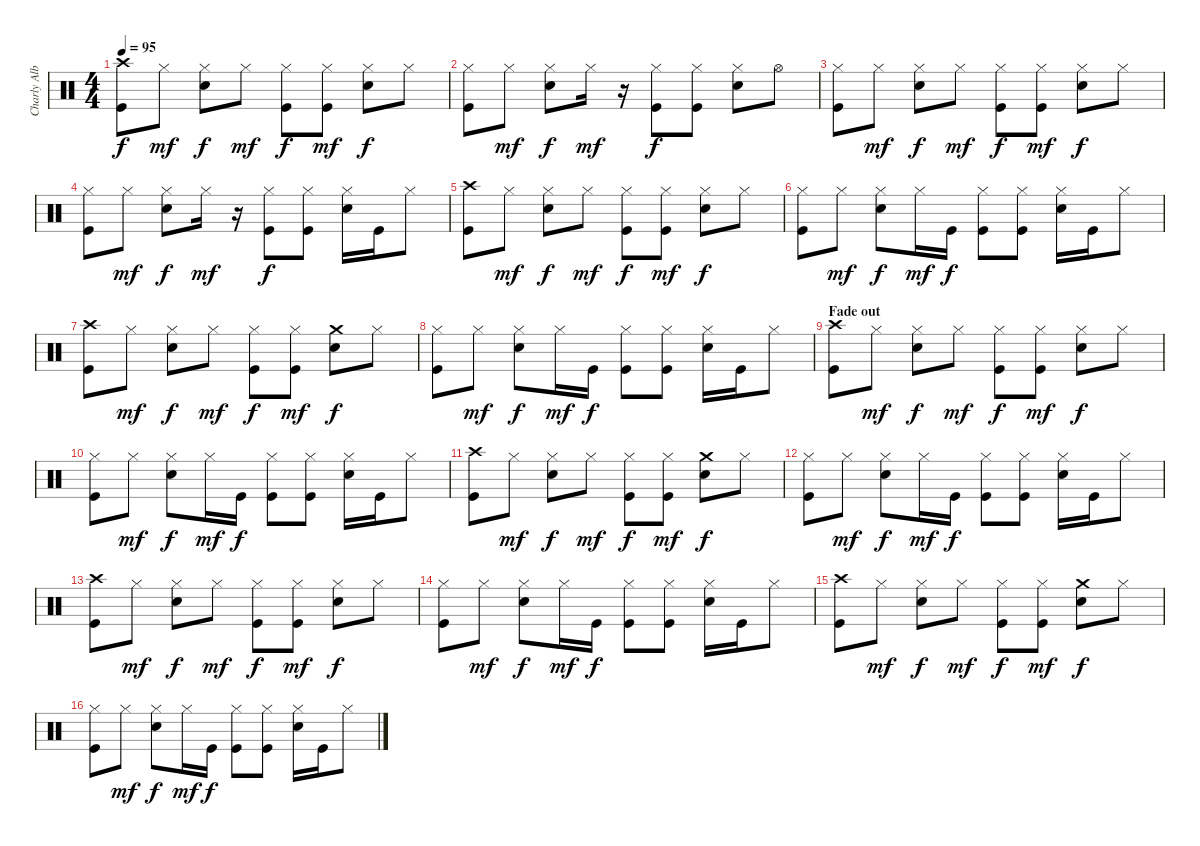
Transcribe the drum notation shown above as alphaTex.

\track ("Charly Alberti BATERIA" "Charly Alb") {instrument percussion}
\staff {score}
\articulation defaults
\ts (4 4)
\tempo 95
\clef neutral
\ks c
("Kick (hit)" "Crash high (hit)").8{dy f} "Hi-Hat (closed)".8{dy mf} ("Electric Snare (hit)" "Hi-Hat (closed)").8{dy f} "Hi-Hat (closed)".8{dy mf} ("Kick (hit)" "Hi-Hat (closed)").8{dy f} ("Kick (hit)" "Hi-Hat (closed)").8{dy mf} ("Electric Snare (hit)" "Hi-Hat (closed)").8{dy f} "Hi-Hat (closed)".8 |
("Kick (hit)" "Hi-Hat (closed)").8 "Hi-Hat (closed)".8{dy mf} ("Electric Snare (hit)" "Hi-Hat (closed)").8{dy f} "Hi-Hat (closed)".16{dy mf} r.16 ("Kick (hit)" "Hi-Hat (closed)").8{dy f} ("Kick (hit)" "Hi-Hat (closed)").8 ("Electric Snare (hit)" "Hi-Hat (closed)").8 "Hi-Hat (open)".8 |
("Kick (hit)" "Hi-Hat (closed)").8 "Hi-Hat (closed)".8{dy mf} ("Electric Snare (hit)" "Hi-Hat (closed)").8{dy f} "Hi-Hat (closed)".8{dy mf} ("Kick (hit)" "Hi-Hat (closed)").8{dy f} ("Kick (hit)" "Hi-Hat (closed)").8{dy mf} ("Electric Snare (hit)" "Hi-Hat (closed)").8{dy f} "Hi-Hat (closed)".8 |
("Kick (hit)" "Hi-Hat (closed)").8 "Hi-Hat (closed)".8{dy mf} ("Electric Snare (hit)" "Hi-Hat (closed)").8{dy f} "Hi-Hat (closed)".16{dy mf} r.16 ("Kick (hit)" "Hi-Hat (closed)").8{dy f} ("Kick (hit)" "Hi-Hat (closed)").8 ("Electric Snare (hit)" "Hi-Hat (closed)").16 "Kick (hit)".16 "Hi-Hat (closed)".8 |
("Kick (hit)" "Crash high (hit)").8 "Hi-Hat (closed)".8{dy mf} ("Electric Snare (hit)" "Hi-Hat (closed)").8{dy f} "Hi-Hat (closed)".8{dy mf} ("Kick (hit)" "Hi-Hat (closed)").8{dy f} ("Kick (hit)" "Hi-Hat (closed)").8{dy mf} ("Electric Snare (hit)" "Hi-Hat (closed)").8{dy f} "Hi-Hat (closed)".8 |
("Kick (hit)" "Hi-Hat (closed)").8 "Hi-Hat (closed)".8{dy mf} ("Electric Snare (hit)" "Hi-Hat (closed)").8{dy f} "Hi-Hat (closed)".16{dy mf} "Kick (hit)".16{dy f} ("Kick (hit)" "Hi-Hat (closed)").8 ("Kick (hit)" "Hi-Hat (closed)").8 ("Electric Snare (hit)" "Hi-Hat (closed)").16 "Kick (hit)".16 "Hi-Hat (closed)".8 |
("Kick (hit)" "Crash high (hit)").8 "Hi-Hat (closed)".8{dy mf} ("Electric Snare (hit)" "Hi-Hat (closed)").8{dy f} "Hi-Hat (closed)".8{dy mf} ("Kick (hit)" "Hi-Hat (closed)").8{dy f} ("Kick (hit)" "Hi-Hat (closed)").8{dy mf} ("Electric Snare (hit)" "Crash medium (hit)").8{dy f} "Hi-Hat (closed)".8 |
("Kick (hit)" "Hi-Hat (closed)").8 "Hi-Hat (closed)".8{dy mf} ("Electric Snare (hit)" "Hi-Hat (closed)").8{dy f} "Hi-Hat (closed)".16{dy mf} "Kick (hit)".16{dy f} ("Kick (hit)" "Hi-Hat (closed)").8 ("Kick (hit)" "Hi-Hat (closed)").8 ("Electric Snare (hit)" "Hi-Hat (closed)").16 "Kick (hit)".16 "Hi-Hat (closed)".8 |
\section ("" "Fade out")
("Kick (hit)" "Crash high (hit)").8 "Hi-Hat (closed)".8{dy mf} ("Electric Snare (hit)" "Hi-Hat (closed)").8{dy f} "Hi-Hat (closed)".8{dy mf} ("Kick (hit)" "Hi-Hat (closed)").8{dy f} ("Kick (hit)" "Hi-Hat (closed)").8{dy mf} ("Electric Snare (hit)" "Hi-Hat (closed)").8{dy f} "Hi-Hat (closed)".8 |
("Kick (hit)" "Hi-Hat (closed)").8 "Hi-Hat (closed)".8{dy mf} ("Electric Snare (hit)" "Hi-Hat (closed)").8{dy f} "Hi-Hat (closed)".16{dy mf} "Kick (hit)".16{dy f} ("Kick (hit)" "Hi-Hat (closed)").8 ("Kick (hit)" "Hi-Hat (closed)").8 ("Electric Snare (hit)" "Hi-Hat (closed)").16 "Kick (hit)".16 "Hi-Hat (closed)".8 |
("Kick (hit)" "Crash high (hit)").8{volume 8} "Hi-Hat (closed)".8{dy mf} ("Electric Snare (hit)" "Hi-Hat (closed)").8{dy f} "Hi-Hat (closed)".8{dy mf} ("Kick (hit)" "Hi-Hat (closed)").8{dy f} ("Kick (hit)" "Hi-Hat (closed)").8{dy mf} ("Electric Snare (hit)" "Crash medium (hit)").8{dy f} "Hi-Hat (closed)".8 |
("Kick (hit)" "Hi-Hat (closed)").8 "Hi-Hat (closed)".8{dy mf} ("Electric Snare (hit)" "Hi-Hat (closed)").8{dy f} "Hi-Hat (closed)".16{dy mf} "Kick (hit)".16{dy f} ("Kick (hit)" "Hi-Hat (closed)").8 ("Kick (hit)" "Hi-Hat (closed)").8 ("Electric Snare (hit)" "Hi-Hat (closed)").16 "Kick (hit)".16 "Hi-Hat (closed)".8 |
("Kick (hit)" "Crash high (hit)").8{volume 4} "Hi-Hat (closed)".8{dy mf} ("Electric Snare (hit)" "Hi-Hat (closed)").8{dy f} "Hi-Hat (closed)".8{dy mf} ("Kick (hit)" "Hi-Hat (closed)").8{dy f} ("Kick (hit)" "Hi-Hat (closed)").8{dy mf} ("Electric Snare (hit)" "Hi-Hat (closed)").8{dy f} "Hi-Hat (closed)".8 |
("Kick (hit)" "Hi-Hat (closed)").8 "Hi-Hat (closed)".8{dy mf} ("Electric Snare (hit)" "Hi-Hat (closed)").8{dy f} "Hi-Hat (closed)".16{dy mf} "Kick (hit)".16{dy f} ("Kick (hit)" "Hi-Hat (closed)").8 ("Kick (hit)" "Hi-Hat (closed)").8 ("Electric Snare (hit)" "Hi-Hat (closed)").16 "Kick (hit)".16 "Hi-Hat (closed)".8 |
("Kick (hit)" "Crash high (hit)").8{volume 0} "Hi-Hat (closed)".8{dy mf} ("Electric Snare (hit)" "Hi-Hat (closed)").8{dy f} "Hi-Hat (closed)".8{dy mf} ("Kick (hit)" "Hi-Hat (closed)").8{dy f} ("Kick (hit)" "Hi-Hat (closed)").8{dy mf} ("Electric Snare (hit)" "Crash medium (hit)").8{dy f} "Hi-Hat (closed)".8 |
("Kick (hit)" "Hi-Hat (closed)").8 "Hi-Hat (closed)".8{dy mf} ("Electric Snare (hit)" "Hi-Hat (closed)").8{dy f} "Hi-Hat (closed)".16{dy mf} "Kick (hit)".16{dy f} ("Kick (hit)" "Hi-Hat (closed)").8 ("Kick (hit)" "Hi-Hat (closed)").8 ("Electric Snare (hit)" "Hi-Hat (closed)").16 "Kick (hit)".16 "Hi-Hat (closed)".8
